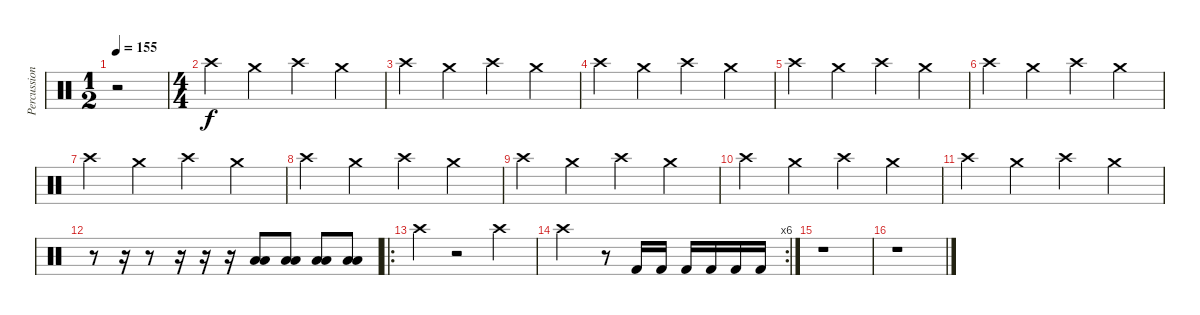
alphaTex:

\track ("Percussion" "Percussion") {instrument percussion}
\staff {score}
\articulation defaults
\ts (1 2)
\tempo 155
\clef neutral
\ks c
r.2{dy f} |
\ts (4 4)
"Crash high (hit)".4 "Crash medium (hit)".4 "Crash high (hit)".4 "Crash medium (hit)".4 |
"Crash high (hit)".4 "Crash medium (hit)".4 "Crash high (hit)".4 "Crash medium (hit)".4 |
"Crash high (hit)".4 "Crash medium (hit)".4 "Crash high (hit)".4 "Crash medium (hit)".4 |
"Crash high (hit)".4 "Crash medium (hit)".4 "Crash high (hit)".4 "Crash medium (hit)".4 |
"Crash high (hit)".4 "Crash medium (hit)".4 "Crash high (hit)".4 "Crash medium (hit)".4 |
"Crash high (hit)".4 "Crash medium (hit)".4 "Crash high (hit)".4 "Crash medium (hit)".4 |
"Crash high (hit)".4 "Crash medium (hit)".4 "Crash high (hit)".4 "Crash medium (hit)".4 |
"Crash high (hit)".4 "Crash medium (hit)".4 "Crash high (hit)".4 "Crash medium (hit)".4 |
"Crash high (hit)".4 "Crash medium (hit)".4 "Crash high (hit)".4 "Crash medium (hit)".4 |
"Crash high (hit)".4 "Crash medium (hit)".4 "Crash high (hit)".4 "Crash medium (hit)".4 |
r.8 r.16 r.8 r.16 r.16 r.16 ("Low Tom (hit)" "Low Floor Tom (hit)").8 ("Low Tom (hit)" "Low Floor Tom (hit)").8 ("Low Tom (hit)" "Low Floor Tom (hit)").8 ("Low Tom (hit)" "Low Floor Tom (hit)").8 |
\ro "Crash high (hit)".4
r.2 "Crash high (hit)".4 |
\rc 6 "Crash high (hit)".2
r.8 "Kick (hit) 2".16 "Kick (hit) 2".16 "Kick (hit) 2".16 "Kick (hit) 2".16 "Kick (hit) 2".16 "Kick (hit) 2".16 |
r.1 |
r.1
